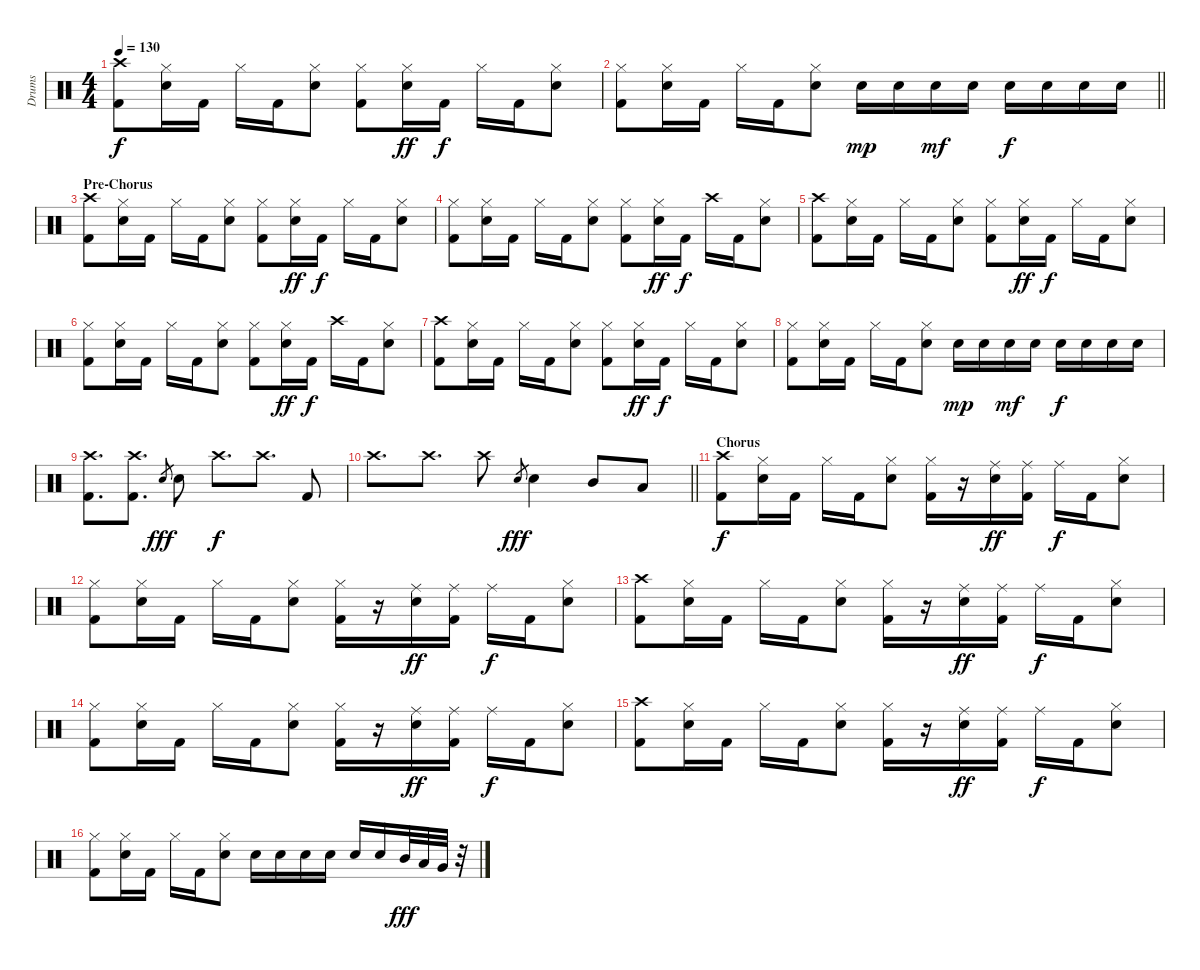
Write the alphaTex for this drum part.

\track ("Drums" "Drums") {instrument percussion}
\staff {score}
\articulation defaults
\ts (4 4)
\tempo 130
\clef neutral
\ks c
("Crash high (hit)" "Kick (hit) 2").8{dy f} ("Hi-Hat (closed)" "Snare (hit) 2").16 "Kick (hit) 2".16 "Hi-Hat (closed)".16 "Kick (hit) 2".16 ("Hi-Hat (closed)" "Snare (hit) 2").8 ("Hi-Hat (closed)" "Kick (hit) 2").8 ("Hi-Hat (closed)" "Snare (hit) 2").16{dy ff} "Kick (hit) 2".16{dy f} "Hi-Hat (closed)".16 "Kick (hit) 2".16 ("Hi-Hat (closed)" "Snare (hit) 2").8 |
\barLineRight lightlight
("Hi-Hat (closed)" "Kick (hit) 2").8 ("Hi-Hat (closed)" "Snare (hit) 2").16 "Kick (hit) 2".16 "Hi-Hat (closed)".16 "Kick (hit) 2".16 ("Hi-Hat (closed)" "Snare (hit) 2").8 "Snare (hit) 2".16{dy mp} "Snare (hit) 2".16 "Snare (hit) 2".16{dy mf} "Snare (hit) 2".16 "Snare (hit) 2".16{dy f} "Snare (hit) 2".16 "Snare (hit) 2".16 "Snare (hit) 2".16 |
\section ("" "Pre-Chorus")
("Crash high (hit)" "Kick (hit) 2").8 ("Hi-Hat (closed)" "Snare (hit) 2").16 "Kick (hit) 2".16 "Hi-Hat (closed)".16 "Kick (hit) 2".16 ("Hi-Hat (closed)" "Snare (hit) 2").8 ("Hi-Hat (closed)" "Kick (hit) 2").8 ("Hi-Hat (closed)" "Snare (hit) 2").16{dy ff} "Kick (hit) 2".16{dy f} "Hi-Hat (closed)".16 "Kick (hit) 2".16 ("Hi-Hat (closed)" "Snare (hit) 2").8 |
("Hi-Hat (closed)" "Kick (hit) 2").8 ("Hi-Hat (closed)" "Snare (hit) 2").16 "Kick (hit) 2".16 "Hi-Hat (closed)".16 "Kick (hit) 2".16 ("Hi-Hat (closed)" "Snare (hit) 2").8 ("Hi-Hat (closed)" "Kick (hit) 2").8 ("Hi-Hat (closed)" "Snare (hit) 2").16{dy ff} "Kick (hit) 2".16{dy f} "Crash high (hit)".16 "Kick (hit) 2".16 ("Hi-Hat (closed)" "Snare (hit) 2").8 |
("Crash high (hit)" "Kick (hit) 2").8 ("Hi-Hat (closed)" "Snare (hit) 2").16 "Kick (hit) 2".16 "Hi-Hat (closed)".16 "Kick (hit) 2".16 ("Hi-Hat (closed)" "Snare (hit) 2").8 ("Hi-Hat (closed)" "Kick (hit) 2").8 ("Hi-Hat (closed)" "Snare (hit) 2").16{dy ff} "Kick (hit) 2".16{dy f} "Hi-Hat (closed)".16 "Kick (hit) 2".16 ("Hi-Hat (closed)" "Snare (hit) 2").8 |
("Hi-Hat (closed)" "Kick (hit) 2").8 ("Hi-Hat (closed)" "Snare (hit) 2").16 "Kick (hit) 2".16 "Hi-Hat (closed)".16 "Kick (hit) 2".16 ("Hi-Hat (closed)" "Snare (hit) 2").8 ("Hi-Hat (closed)" "Kick (hit) 2").8 ("Hi-Hat (closed)" "Snare (hit) 2").16{dy ff} "Kick (hit) 2".16{dy f} "Crash high (hit)".16 "Kick (hit) 2".16 ("Hi-Hat (closed)" "Snare (hit) 2").8 |
("Crash high (hit)" "Kick (hit) 2").8 ("Hi-Hat (closed)" "Snare (hit) 2").16 "Kick (hit) 2".16 "Hi-Hat (closed)".16 "Kick (hit) 2".16 ("Hi-Hat (closed)" "Snare (hit) 2").8 ("Hi-Hat (closed)" "Kick (hit) 2").8 ("Hi-Hat (closed)" "Snare (hit) 2").16{dy ff} "Kick (hit) 2".16{dy f} "Hi-Hat (closed)".16 "Kick (hit) 2".16 ("Hi-Hat (closed)" "Snare (hit) 2").8 |
("Hi-Hat (closed)" "Kick (hit) 2").8 ("Hi-Hat (closed)" "Snare (hit) 2").16 "Kick (hit) 2".16 "Hi-Hat (closed)".16 "Kick (hit) 2".16 ("Hi-Hat (closed)" "Snare (hit) 2").8 "Snare (hit) 2".16{dy mp} "Snare (hit) 2".16 "Snare (hit) 2".16{dy mf} "Snare (hit) 2".16 "Snare (hit) 2".16{dy f} "Snare (hit) 2".16 "Snare (hit) 2".16 "Snare (hit) 2".16 |
("Crash high (hit)" "Kick (hit) 2").8{d} ("Crash high (hit)" "Kick (hit) 2").8{d} "Snare (hit) 2".8{gr dy fff} "Snare (hit) 2".8 "Crash high (hit)".8{d dy f} "Crash high (hit)".8{d} "Kick (hit) 2".8 |
\barLineRight lightlight "Crash high (hit)".8{d} "Crash high (hit)".8{d} "Crash high (hit)".8 "Snare (hit) 2".8{gr dy fff} "Snare (hit) 2".4 "Mid Tom (hit)".8 "Low Tom (hit)".8
|
\section ("" "Chorus")
("Crash high (hit)" "Kick (hit) 2").8{dy f} ("Hi-Hat (closed)" "Snare (hit) 2").16 "Kick (hit) 2".16 "Hi-Hat (closed)".16 "Kick (hit) 2".16 ("Hi-Hat (closed)" "Snare (hit) 2").8 ("Hi-Hat (closed)" "Kick (hit) 2").16 r.16 ("Ride (middle)" "Snare (hit) 2").16{dy ff} ("Ride (middle)" "Kick (hit) 2").16 "Ride (middle)".16{dy f} "Kick (hit) 2".16 ("Hi-Hat (closed)" "Snare (hit) 2").8 |
("Hi-Hat (closed)" "Kick (hit) 2").8 ("Hi-Hat (closed)" "Snare (hit) 2").16 "Kick (hit) 2".16 "Hi-Hat (closed)".16 "Kick (hit) 2".16 ("Hi-Hat (closed)" "Snare (hit) 2").8 ("Hi-Hat (closed)" "Kick (hit) 2").16 r.16 ("Ride (middle)" "Snare (hit) 2").16{dy ff} ("Ride (middle)" "Kick (hit) 2").16 "Ride (middle)".16{dy f} "Kick (hit) 2".16 ("Hi-Hat (closed)" "Snare (hit) 2").8 |
("Crash high (hit)" "Kick (hit) 2").8 ("Hi-Hat (closed)" "Snare (hit) 2").16 "Kick (hit) 2".16 "Hi-Hat (closed)".16 "Kick (hit) 2".16 ("Hi-Hat (closed)" "Snare (hit) 2").8 ("Hi-Hat (closed)" "Kick (hit) 2").16 r.16 ("Ride (middle)" "Snare (hit) 2").16{dy ff} ("Ride (middle)" "Kick (hit) 2").16 "Ride (middle)".16{dy f} "Kick (hit) 2".16 ("Hi-Hat (closed)" "Snare (hit) 2").8 |
("Hi-Hat (closed)" "Kick (hit) 2").8 ("Hi-Hat (closed)" "Snare (hit) 2").16 "Kick (hit) 2".16 "Hi-Hat (closed)".16 "Kick (hit) 2".16 ("Hi-Hat (closed)" "Snare (hit) 2").8 ("Hi-Hat (closed)" "Kick (hit) 2").16 r.16 ("Ride (middle)" "Snare (hit) 2").16{dy ff} ("Ride (middle)" "Kick (hit) 2").16 "Ride (middle)".16{dy f} "Kick (hit) 2".16 ("Hi-Hat (closed)" "Snare (hit) 2").8 |
("Crash high (hit)" "Kick (hit) 2").8 ("Hi-Hat (closed)" "Snare (hit) 2").16 "Kick (hit) 2".16 "Hi-Hat (closed)".16 "Kick (hit) 2".16 ("Hi-Hat (closed)" "Snare (hit) 2").8 ("Hi-Hat (closed)" "Kick (hit) 2").16 r.16 ("Ride (middle)" "Snare (hit) 2").16{dy ff} ("Ride (middle)" "Kick (hit) 2").16 "Ride (middle)".16{dy f} "Kick (hit) 2".16 ("Hi-Hat (closed)" "Snare (hit) 2").8 |
("Hi-Hat (closed)" "Kick (hit) 2").8 ("Hi-Hat (closed)" "Snare (hit) 2").16 "Kick (hit) 2".16 "Hi-Hat (closed)".16 "Kick (hit) 2".16 ("Hi-Hat (closed)" "Snare (hit) 2").8 "Snare (hit) 2".16 "Snare (hit) 2".16 "Snare (hit) 2".16 "Snare (hit) 2".16 "Snare (hit) 2".16 "Snare (hit) 2".16 "Mid Tom (hit)".32{dy fff} "Low Tom (hit)".32 "Very Low Tom (hit)".32 r.32
